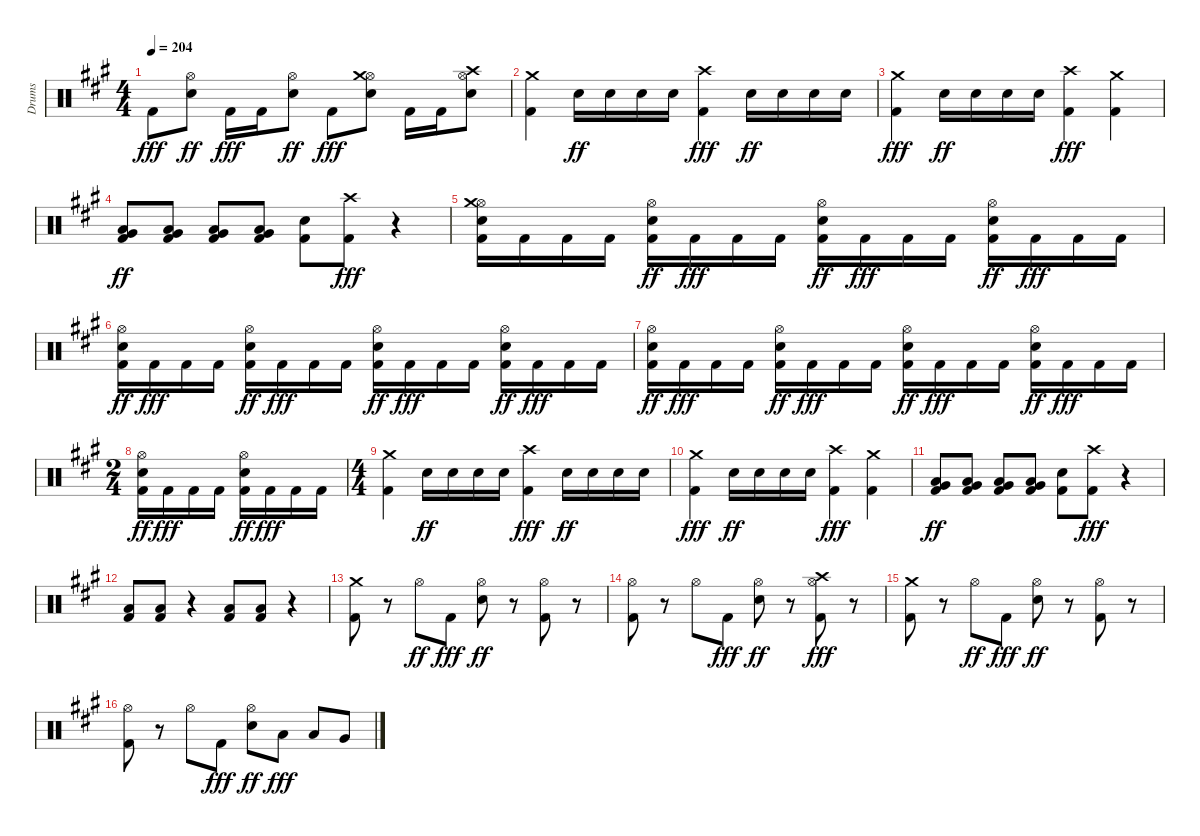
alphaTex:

\track ("Drums" "Drums") {instrument percussion}
\staff {score}
\articulation defaults
\ts (4 4)
\tempo 204
\clef neutral
\ks a "Kick (hit) 2".8{dy fff}
("Electric Snare (hit)" "Hi-Hat (open)").8{dy ff} "Kick (hit) 2".16{dy fff} "Kick (hit) 2".16 ("Electric Snare (hit)" "Hi-Hat (open)").8{dy ff} "Kick (hit) 2".8{dy fff} ("Electric Snare (hit)" "Hi-Hat (open)" "Crash medium (hit)").8 "Kick (hit) 2".16 "Kick (hit) 2".16 ("Electric Snare (hit)" "Hi-Hat (open)" "Crash high (hit)").8 |
("Kick (hit) 2" "Crash medium (hit)").4 "Electric Snare (hit)".16{dy ff} "Electric Snare (hit)".16 "Electric Snare (hit)".16 "Electric Snare (hit)".16 ("Kick (hit) 2" "Crash high (hit)").4{dy fff} "Electric Snare (hit)".16{dy ff} "Electric Snare (hit)".16 "Electric Snare (hit)".16 "Electric Snare (hit)".16 |
("Kick (hit) 2" "Crash medium (hit)").4{dy fff} "Electric Snare (hit)".16{dy ff} "Electric Snare (hit)".16 "Electric Snare (hit)".16 "Electric Snare (hit)".16 ("Kick (hit) 2" "Crash high (hit)").4{dy fff} ("Kick (hit) 2" "Crash medium (hit)").4 |
("Kick (hit) 2" "Low Tom (hit)" "Very Low Tom (hit)").8{dy ff} ("Kick (hit) 2" "Low Tom (hit)" "Very Low Tom (hit)").8 ("Kick (hit) 2" "Low Tom (hit)" "Very Low Tom (hit)").8 ("Kick (hit) 2" "Low Tom (hit)" "Very Low Tom (hit)").8 ("Kick (hit) 2" "Electric Snare (hit)").8 ("Kick (hit) 2" "Crash high (hit)").8{dy fff} r.4 |
("Kick (hit) 2" "Electric Snare (hit)" "Hi-Hat (open)" "Crash medium (hit)").16 "Kick (hit) 2".16 "Kick (hit) 2".16 "Kick (hit) 2".16 ("Kick (hit) 2" "Electric Snare (hit)" "Hi-Hat (open)").16{dy ff} "Kick (hit) 2".16{dy fff} "Kick (hit) 2".16 "Kick (hit) 2".16 ("Kick (hit) 2" "Electric Snare (hit)" "Hi-Hat (open)").16{dy ff} "Kick (hit) 2".16{dy fff} "Kick (hit) 2".16 "Kick (hit) 2".16 ("Kick (hit) 2" "Electric Snare (hit)" "Hi-Hat (open)").16{dy ff} "Kick (hit) 2".16{dy fff} "Kick (hit) 2".16 "Kick (hit) 2".16 |
("Kick (hit) 2" "Electric Snare (hit)" "Hi-Hat (open)").16{dy ff} "Kick (hit) 2".16{dy fff} "Kick (hit) 2".16 "Kick (hit) 2".16 ("Kick (hit) 2" "Electric Snare (hit)" "Hi-Hat (open)").16{dy ff} "Kick (hit) 2".16{dy fff} "Kick (hit) 2".16 "Kick (hit) 2".16 ("Kick (hit) 2" "Electric Snare (hit)" "Hi-Hat (open)").16{dy ff} "Kick (hit) 2".16{dy fff} "Kick (hit) 2".16 "Kick (hit) 2".16 ("Kick (hit) 2" "Electric Snare (hit)" "Hi-Hat (open)").16{dy ff} "Kick (hit) 2".16{dy fff} "Kick (hit) 2".16 "Kick (hit) 2".16 |
("Kick (hit) 2" "Electric Snare (hit)" "Hi-Hat (open)").16{dy ff} "Kick (hit) 2".16{dy fff} "Kick (hit) 2".16 "Kick (hit) 2".16 ("Kick (hit) 2" "Electric Snare (hit)" "Hi-Hat (open)").16{dy ff} "Kick (hit) 2".16{dy fff} "Kick (hit) 2".16 "Kick (hit) 2".16 ("Kick (hit) 2" "Electric Snare (hit)" "Hi-Hat (open)").16{dy ff} "Kick (hit) 2".16{dy fff} "Kick (hit) 2".16 "Kick (hit) 2".16 ("Kick (hit) 2" "Electric Snare (hit)" "Hi-Hat (open)").16{dy ff} "Kick (hit) 2".16{dy fff} "Kick (hit) 2".16 "Kick (hit) 2".16 |
\ts (2 4)
("Kick (hit) 2" "Electric Snare (hit)" "Hi-Hat (open)").16{dy ff} "Kick (hit) 2".16{dy fff} "Kick (hit) 2".16 "Kick (hit) 2".16 ("Kick (hit) 2" "Electric Snare (hit)" "Hi-Hat (open)").16{dy ff} "Kick (hit) 2".16{dy fff} "Kick (hit) 2".16 "Kick (hit) 2".16 |
\ts (4 4)
("Kick (hit) 2" "Crash medium (hit)").4 "Electric Snare (hit)".16{dy ff} "Electric Snare (hit)".16 "Electric Snare (hit)".16 "Electric Snare (hit)".16 ("Kick (hit) 2" "Crash high (hit)").4{dy fff} "Electric Snare (hit)".16{dy ff} "Electric Snare (hit)".16 "Electric Snare (hit)".16 "Electric Snare (hit)".16 |
("Kick (hit) 2" "Crash medium (hit)").4{dy fff} "Electric Snare (hit)".16{dy ff} "Electric Snare (hit)".16 "Electric Snare (hit)".16 "Electric Snare (hit)".16 ("Kick (hit) 2" "Crash high (hit)").4{dy fff} ("Kick (hit) 2" "Crash medium (hit)").4 |
("Kick (hit) 2" "Low Tom (hit)" "Very Low Tom (hit)").8{dy ff} ("Kick (hit) 2" "Low Tom (hit)" "Very Low Tom (hit)").8 ("Kick (hit) 2" "Low Tom (hit)" "Very Low Tom (hit)").8 ("Kick (hit) 2" "Low Tom (hit)" "Very Low Tom (hit)").8 ("Kick (hit) 2" "Electric Snare (hit)").8 ("Kick (hit) 2" "Crash high (hit)").8{dy fff} r.4 |
("Kick (hit) 2" "Low Tom (hit)").8 ("Kick (hit) 2" "Low Tom (hit)").8 r.4 ("Kick (hit) 2" "Low Tom (hit)").8 ("Kick (hit) 2" "Low Tom (hit)").8 r.4 |
("Kick (hit) 2" "Crash medium (hit)").8 r.8 "Hi-Hat (open)".8{dy ff} "Kick (hit) 2".8{dy fff} ("Electric Snare (hit)" "Hi-Hat (open)").8{dy ff} r.8 ("Kick (hit) 2" "Hi-Hat (open)").8 r.8 |
("Kick (hit) 2" "Hi-Hat (open)").8 r.8 "Hi-Hat (open)".8 "Kick (hit) 2".8{dy fff} ("Electric Snare (hit)" "Hi-Hat (open)").8{dy ff} r.8 ("Kick (hit) 2" "Hi-Hat (open)" "Crash high (hit)").8{dy fff} r.8 |
("Kick (hit) 2" "Crash medium (hit)").8 r.8 "Hi-Hat (open)".8{dy ff} "Kick (hit) 2".8{dy fff} ("Electric Snare (hit)" "Hi-Hat (open)").8{dy ff} r.8 ("Kick (hit) 2" "Hi-Hat (open)").8 r.8 |
("Kick (hit) 2" "Hi-Hat (open)").8 r.8 "Hi-Hat (open)".8 "Kick (hit) 2".8{dy fff} ("Electric Snare (hit)" "Hi-Hat (open)").8{dy ff} "Low Tom (hit)".8{dy fff} "Low Tom (hit)".8 "Very Low Tom (hit)".8
